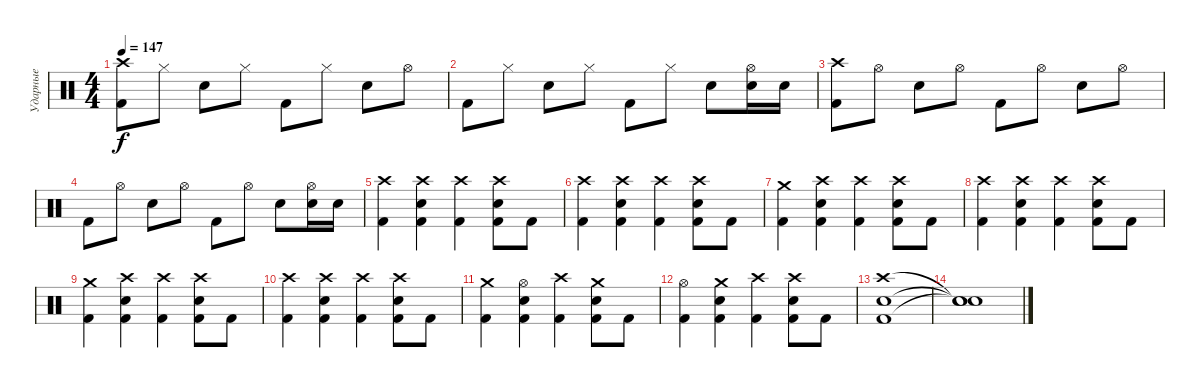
\track ("Ударные" "Ударные") {instrument percussion}
\staff {score}
\articulation defaults
\ts (4 4)
\tempo 147
\clef neutral
\ks c
("Crash high (hit)" "Kick (hit) 2").8{dy f} "Hi-Hat (closed)".8 "Electric Snare (hit)".8 "Hi-Hat (closed)".8 "Kick (hit) 2".8 "Hi-Hat (closed)".8 "Electric Snare (hit)".8 "Hi-Hat (open)".8 |
"Kick (hit) 2".8 "Hi-Hat (closed)".8 "Electric Snare (hit)".8 "Hi-Hat (closed)".8 "Kick (hit) 2".8 "Hi-Hat (closed)".8 "Electric Snare (hit)".8 ("Hi-Hat (open)" "Electric Snare (hit)").16 "Electric Snare (hit)".16 |
("Crash high (hit)" "Kick (hit) 2").8 "Hi-Hat (open)".8 "Electric Snare (hit)".8 "Hi-Hat (open)".8 "Kick (hit) 2".8 "Hi-Hat (open)".8 "Electric Snare (hit)".8 "Hi-Hat (open)".8 |
"Kick (hit) 2".8 "Hi-Hat (open)".8 "Electric Snare (hit)".8 "Hi-Hat (open)".8 "Kick (hit) 2".8 "Hi-Hat (open)".8 "Electric Snare (hit)".8 ("Hi-Hat (open)" "Electric Snare (hit)").16 "Electric Snare (hit)".16 |
("Crash high (hit)" "Kick (hit) 2").4 ("Crash high (hit)" "Electric Snare (hit)" "Kick (hit) 2").4 ("Crash high (hit)" "Kick (hit) 2").4 ("Crash high (hit)" "Electric Snare (hit)" "Kick (hit) 2").8 "Kick (hit) 2".8 |
("Crash high (hit)" "Kick (hit) 2").4 ("Crash high (hit)" "Electric Snare (hit)" "Kick (hit) 2").4 ("Crash high (hit)" "Kick (hit) 2").4 ("Crash high (hit)" "Electric Snare (hit)" "Kick (hit) 2").8 "Kick (hit) 2".8 |
("Crash medium (hit)" "Kick (hit) 2").4 ("Crash high (hit)" "Electric Snare (hit)" "Kick (hit) 2").4 ("Crash high (hit)" "Kick (hit) 2").4 ("Crash high (hit)" "Electric Snare (hit)" "Kick (hit) 2").8 "Kick (hit) 2".8 |
("Crash high (hit)" "Kick (hit) 2").4 ("Crash high (hit)" "Electric Snare (hit)" "Kick (hit) 2").4 ("Crash high (hit)" "Kick (hit) 2").4 ("Crash high (hit)" "Electric Snare (hit)" "Kick (hit) 2").8 "Kick (hit) 2".8 |
("Crash medium (hit)" "Kick (hit) 2").4 ("Crash high (hit)" "Electric Snare (hit)" "Kick (hit) 2").4 ("Crash high (hit)" "Kick (hit) 2").4 ("Crash high (hit)" "Electric Snare (hit)" "Kick (hit) 2").8 "Kick (hit) 2".8 |
("Crash high (hit)" "Kick (hit) 2").4 ("Crash high (hit)" "Electric Snare (hit)" "Kick (hit) 2").4 ("Crash high (hit)" "Kick (hit) 2").4 ("Crash high (hit)" "Electric Snare (hit)" "Kick (hit) 2").8 "Kick (hit) 2".8 |
("Crash medium (hit)" "Kick (hit) 2").4 ("Hi-Hat (open)" "Electric Snare (hit)" "Kick (hit) 2").4 ("Crash high (hit)" "Kick (hit) 2").4 ("Crash medium (hit)" "Electric Snare (hit)" "Kick (hit) 2").8 "Kick (hit) 2".8 |
("Hi-Hat (open)" "Kick (hit) 2").4 ("Crash medium (hit)" "Electric Snare (hit)" "Kick (hit) 2").4 ("Crash high (hit)" "Kick (hit) 2").4 ("Crash high (hit)" "Electric Snare (hit)" "Kick (hit) 2").8 "Kick (hit) 2".8 |
("Crash high (hit)" "Electric Snare (hit)" "Kick (hit) 2").1 |
("Snare (hit)"{t} "Snare (hit)"{t} "Snare (hit)"{t}).1
